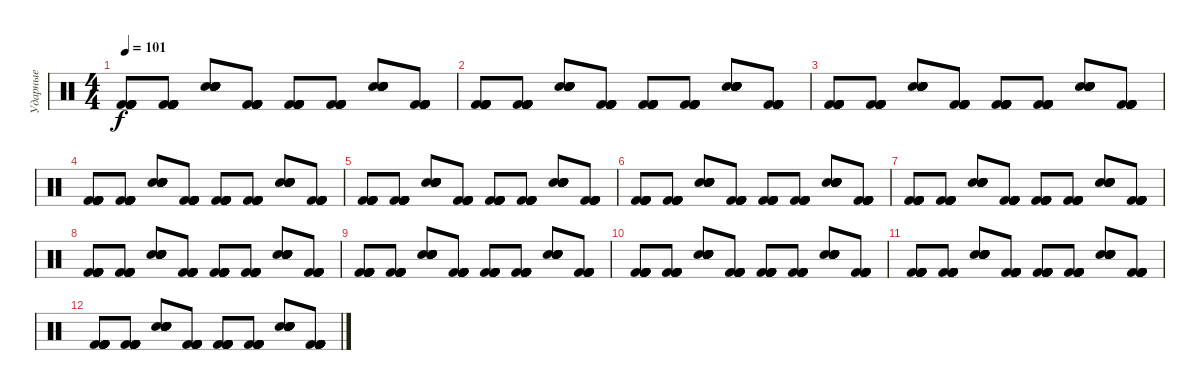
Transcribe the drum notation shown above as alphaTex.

\track ("Ударные" "Ударные") {instrument percussion}
\staff {score}
\articulation defaults
\ts (4 4)
\tempo 101
\clef neutral
\ks c
("Kick (hit) 2" "Kick (hit) 2" "Kick (hit) 2" "Kick (hit) 2" "Kick (hit) 2" "Kick (hit) 2").8{dy f} ("Kick (hit) 2" "Kick (hit) 2" "Kick (hit) 2" "Kick (hit) 2" "Kick (hit) 2" "Kick (hit) 2").8 ("Snare (hit) 2" "Snare (hit) 2" "Snare (hit) 2" "Snare (hit) 2" "Snare (hit) 2" "Snare (hit) 2").8 ("Kick (hit) 2" "Kick (hit) 2" "Kick (hit) 2" "Kick (hit) 2" "Kick (hit) 2" "Kick (hit) 2").8 ("Kick (hit) 2" "Kick (hit) 2" "Kick (hit) 2" "Kick (hit) 2" "Kick (hit) 2" "Kick (hit) 2").8 ("Kick (hit) 2" "Kick (hit) 2" "Kick (hit) 2" "Kick (hit) 2" "Kick (hit) 2" "Kick (hit) 2").8 ("Snare (hit) 2" "Snare (hit) 2" "Snare (hit) 2" "Snare (hit) 2" "Snare (hit) 2" "Snare (hit) 2").8 ("Kick (hit) 2" "Kick (hit) 2" "Kick (hit) 2" "Kick (hit) 2" "Kick (hit) 2" "Kick (hit) 2").8 |
("Kick (hit) 2" "Kick (hit) 2" "Kick (hit) 2" "Kick (hit) 2" "Kick (hit) 2" "Kick (hit) 2").8 ("Kick (hit) 2" "Kick (hit) 2" "Kick (hit) 2" "Kick (hit) 2" "Kick (hit) 2" "Kick (hit) 2").8 ("Snare (hit) 2" "Snare (hit) 2" "Snare (hit) 2" "Snare (hit) 2" "Snare (hit) 2" "Snare (hit) 2").8 ("Kick (hit) 2" "Kick (hit) 2" "Kick (hit) 2" "Kick (hit) 2" "Kick (hit) 2" "Kick (hit) 2").8 ("Kick (hit) 2" "Kick (hit) 2" "Kick (hit) 2" "Kick (hit) 2" "Kick (hit) 2" "Kick (hit) 2").8 ("Kick (hit) 2" "Kick (hit) 2" "Kick (hit) 2" "Kick (hit) 2" "Kick (hit) 2" "Kick (hit) 2").8 ("Snare (hit) 2" "Snare (hit) 2" "Snare (hit) 2" "Snare (hit) 2" "Snare (hit) 2" "Snare (hit) 2").8 ("Kick (hit) 2" "Kick (hit) 2" "Kick (hit) 2" "Kick (hit) 2" "Kick (hit) 2" "Kick (hit) 2").8 |
("Kick (hit) 2" "Kick (hit) 2" "Kick (hit) 2" "Kick (hit) 2" "Kick (hit) 2" "Kick (hit) 2").8 ("Kick (hit) 2" "Kick (hit) 2" "Kick (hit) 2" "Kick (hit) 2" "Kick (hit) 2" "Kick (hit) 2").8 ("Snare (hit) 2" "Snare (hit) 2" "Snare (hit) 2" "Snare (hit) 2" "Snare (hit) 2" "Snare (hit) 2").8 ("Kick (hit) 2" "Kick (hit) 2" "Kick (hit) 2" "Kick (hit) 2" "Kick (hit) 2" "Kick (hit) 2").8 ("Kick (hit) 2" "Kick (hit) 2" "Kick (hit) 2" "Kick (hit) 2" "Kick (hit) 2" "Kick (hit) 2").8 ("Kick (hit) 2" "Kick (hit) 2" "Kick (hit) 2" "Kick (hit) 2" "Kick (hit) 2" "Kick (hit) 2").8 ("Snare (hit) 2" "Snare (hit) 2" "Snare (hit) 2" "Snare (hit) 2" "Snare (hit) 2" "Snare (hit) 2").8 ("Kick (hit) 2" "Kick (hit) 2" "Kick (hit) 2" "Kick (hit) 2" "Kick (hit) 2" "Kick (hit) 2").8 |
("Kick (hit) 2" "Kick (hit) 2" "Kick (hit) 2" "Kick (hit) 2" "Kick (hit) 2" "Kick (hit) 2").8 ("Kick (hit) 2" "Kick (hit) 2" "Kick (hit) 2" "Kick (hit) 2" "Kick (hit) 2" "Kick (hit) 2").8 ("Snare (hit) 2" "Snare (hit) 2" "Snare (hit) 2" "Snare (hit) 2" "Snare (hit) 2" "Snare (hit) 2").8 ("Kick (hit) 2" "Kick (hit) 2" "Kick (hit) 2" "Kick (hit) 2" "Kick (hit) 2" "Kick (hit) 2").8 ("Kick (hit) 2" "Kick (hit) 2" "Kick (hit) 2" "Kick (hit) 2" "Kick (hit) 2" "Kick (hit) 2").8 ("Kick (hit) 2" "Kick (hit) 2" "Kick (hit) 2" "Kick (hit) 2" "Kick (hit) 2" "Kick (hit) 2").8 ("Snare (hit) 2" "Snare (hit) 2" "Snare (hit) 2" "Snare (hit) 2" "Snare (hit) 2" "Snare (hit) 2").8 ("Kick (hit) 2" "Kick (hit) 2" "Kick (hit) 2" "Kick (hit) 2" "Kick (hit) 2" "Kick (hit) 2").8 |
("Kick (hit) 2" "Kick (hit) 2" "Kick (hit) 2" "Kick (hit) 2" "Kick (hit) 2" "Kick (hit) 2").8 ("Kick (hit) 2" "Kick (hit) 2" "Kick (hit) 2" "Kick (hit) 2" "Kick (hit) 2" "Kick (hit) 2").8 ("Snare (hit) 2" "Snare (hit) 2" "Snare (hit) 2" "Snare (hit) 2" "Snare (hit) 2" "Snare (hit) 2").8 ("Kick (hit) 2" "Kick (hit) 2" "Kick (hit) 2" "Kick (hit) 2" "Kick (hit) 2" "Kick (hit) 2").8 ("Kick (hit) 2" "Kick (hit) 2" "Kick (hit) 2" "Kick (hit) 2" "Kick (hit) 2" "Kick (hit) 2").8 ("Kick (hit) 2" "Kick (hit) 2" "Kick (hit) 2" "Kick (hit) 2" "Kick (hit) 2" "Kick (hit) 2").8 ("Snare (hit) 2" "Snare (hit) 2" "Snare (hit) 2" "Snare (hit) 2" "Snare (hit) 2" "Snare (hit) 2").8 ("Kick (hit) 2" "Kick (hit) 2" "Kick (hit) 2" "Kick (hit) 2" "Kick (hit) 2" "Kick (hit) 2").8 |
("Kick (hit) 2" "Kick (hit) 2" "Kick (hit) 2" "Kick (hit) 2" "Kick (hit) 2" "Kick (hit) 2").8 ("Kick (hit) 2" "Kick (hit) 2" "Kick (hit) 2" "Kick (hit) 2" "Kick (hit) 2" "Kick (hit) 2").8 ("Snare (hit) 2" "Snare (hit) 2" "Snare (hit) 2" "Snare (hit) 2" "Snare (hit) 2" "Snare (hit) 2").8 ("Kick (hit) 2" "Kick (hit) 2" "Kick (hit) 2" "Kick (hit) 2" "Kick (hit) 2" "Kick (hit) 2").8 ("Kick (hit) 2" "Kick (hit) 2" "Kick (hit) 2" "Kick (hit) 2" "Kick (hit) 2" "Kick (hit) 2").8 ("Kick (hit) 2" "Kick (hit) 2" "Kick (hit) 2" "Kick (hit) 2" "Kick (hit) 2" "Kick (hit) 2").8 ("Snare (hit) 2" "Snare (hit) 2" "Snare (hit) 2" "Snare (hit) 2" "Snare (hit) 2" "Snare (hit) 2").8 ("Kick (hit) 2" "Kick (hit) 2" "Kick (hit) 2" "Kick (hit) 2" "Kick (hit) 2" "Kick (hit) 2").8 |
("Kick (hit) 2" "Kick (hit) 2" "Kick (hit) 2" "Kick (hit) 2" "Kick (hit) 2" "Kick (hit) 2").8 ("Kick (hit) 2" "Kick (hit) 2" "Kick (hit) 2" "Kick (hit) 2" "Kick (hit) 2" "Kick (hit) 2").8 ("Snare (hit) 2" "Snare (hit) 2" "Snare (hit) 2" "Snare (hit) 2" "Snare (hit) 2" "Snare (hit) 2").8 ("Kick (hit) 2" "Kick (hit) 2" "Kick (hit) 2" "Kick (hit) 2" "Kick (hit) 2" "Kick (hit) 2").8 ("Kick (hit) 2" "Kick (hit) 2" "Kick (hit) 2" "Kick (hit) 2" "Kick (hit) 2" "Kick (hit) 2").8 ("Kick (hit) 2" "Kick (hit) 2" "Kick (hit) 2" "Kick (hit) 2" "Kick (hit) 2" "Kick (hit) 2").8 ("Snare (hit) 2" "Snare (hit) 2" "Snare (hit) 2" "Snare (hit) 2" "Snare (hit) 2" "Snare (hit) 2").8 ("Kick (hit) 2" "Kick (hit) 2" "Kick (hit) 2" "Kick (hit) 2" "Kick (hit) 2" "Kick (hit) 2").8 |
("Kick (hit) 2" "Kick (hit) 2" "Kick (hit) 2" "Kick (hit) 2" "Kick (hit) 2" "Kick (hit) 2").8 ("Kick (hit) 2" "Kick (hit) 2" "Kick (hit) 2" "Kick (hit) 2" "Kick (hit) 2" "Kick (hit) 2").8 ("Snare (hit) 2" "Snare (hit) 2" "Snare (hit) 2" "Snare (hit) 2" "Snare (hit) 2" "Snare (hit) 2").8 ("Kick (hit) 2" "Kick (hit) 2" "Kick (hit) 2" "Kick (hit) 2" "Kick (hit) 2" "Kick (hit) 2").8 ("Kick (hit) 2" "Kick (hit) 2" "Kick (hit) 2" "Kick (hit) 2" "Kick (hit) 2" "Kick (hit) 2").8 ("Kick (hit) 2" "Kick (hit) 2" "Kick (hit) 2" "Kick (hit) 2" "Kick (hit) 2" "Kick (hit) 2").8 ("Snare (hit) 2" "Snare (hit) 2" "Snare (hit) 2" "Snare (hit) 2" "Snare (hit) 2" "Snare (hit) 2").8 ("Kick (hit) 2" "Kick (hit) 2" "Kick (hit) 2" "Kick (hit) 2" "Kick (hit) 2" "Kick (hit) 2").8 |
("Kick (hit) 2" "Kick (hit) 2" "Kick (hit) 2" "Kick (hit) 2" "Kick (hit) 2" "Kick (hit) 2").8 ("Kick (hit) 2" "Kick (hit) 2" "Kick (hit) 2" "Kick (hit) 2" "Kick (hit) 2" "Kick (hit) 2").8 ("Snare (hit) 2" "Snare (hit) 2" "Snare (hit) 2" "Snare (hit) 2" "Snare (hit) 2" "Snare (hit) 2").8 ("Kick (hit) 2" "Kick (hit) 2" "Kick (hit) 2" "Kick (hit) 2" "Kick (hit) 2" "Kick (hit) 2").8 ("Kick (hit) 2" "Kick (hit) 2" "Kick (hit) 2" "Kick (hit) 2" "Kick (hit) 2" "Kick (hit) 2").8 ("Kick (hit) 2" "Kick (hit) 2" "Kick (hit) 2" "Kick (hit) 2" "Kick (hit) 2" "Kick (hit) 2").8 ("Snare (hit) 2" "Snare (hit) 2" "Snare (hit) 2" "Snare (hit) 2" "Snare (hit) 2" "Snare (hit) 2").8 ("Kick (hit) 2" "Kick (hit) 2" "Kick (hit) 2" "Kick (hit) 2" "Kick (hit) 2" "Kick (hit) 2").8 |
("Kick (hit) 2" "Kick (hit) 2" "Kick (hit) 2" "Kick (hit) 2" "Kick (hit) 2" "Kick (hit) 2").8 ("Kick (hit) 2" "Kick (hit) 2" "Kick (hit) 2" "Kick (hit) 2" "Kick (hit) 2" "Kick (hit) 2").8 ("Snare (hit) 2" "Snare (hit) 2" "Snare (hit) 2" "Snare (hit) 2" "Snare (hit) 2" "Snare (hit) 2").8 ("Kick (hit) 2" "Kick (hit) 2" "Kick (hit) 2" "Kick (hit) 2" "Kick (hit) 2" "Kick (hit) 2").8 ("Kick (hit) 2" "Kick (hit) 2" "Kick (hit) 2" "Kick (hit) 2" "Kick (hit) 2" "Kick (hit) 2").8 ("Kick (hit) 2" "Kick (hit) 2" "Kick (hit) 2" "Kick (hit) 2" "Kick (hit) 2" "Kick (hit) 2").8 ("Snare (hit) 2" "Snare (hit) 2" "Snare (hit) 2" "Snare (hit) 2" "Snare (hit) 2" "Snare (hit) 2").8 ("Kick (hit) 2" "Kick (hit) 2" "Kick (hit) 2" "Kick (hit) 2" "Kick (hit) 2" "Kick (hit) 2").8 |
("Kick (hit) 2" "Kick (hit) 2" "Kick (hit) 2" "Kick (hit) 2" "Kick (hit) 2" "Kick (hit) 2").8 ("Kick (hit) 2" "Kick (hit) 2" "Kick (hit) 2" "Kick (hit) 2" "Kick (hit) 2" "Kick (hit) 2").8 ("Snare (hit) 2" "Snare (hit) 2" "Snare (hit) 2" "Snare (hit) 2" "Snare (hit) 2" "Snare (hit) 2").8 ("Kick (hit) 2" "Kick (hit) 2" "Kick (hit) 2" "Kick (hit) 2" "Kick (hit) 2" "Kick (hit) 2").8 ("Kick (hit) 2" "Kick (hit) 2" "Kick (hit) 2" "Kick (hit) 2" "Kick (hit) 2" "Kick (hit) 2").8 ("Kick (hit) 2" "Kick (hit) 2" "Kick (hit) 2" "Kick (hit) 2" "Kick (hit) 2" "Kick (hit) 2").8 ("Snare (hit) 2" "Snare (hit) 2" "Snare (hit) 2" "Snare (hit) 2" "Snare (hit) 2" "Snare (hit) 2").8 ("Kick (hit) 2" "Kick (hit) 2" "Kick (hit) 2" "Kick (hit) 2" "Kick (hit) 2" "Kick (hit) 2").8 |
("Kick (hit) 2" "Kick (hit) 2" "Kick (hit) 2" "Kick (hit) 2" "Kick (hit) 2" "Kick (hit) 2").8 ("Kick (hit) 2" "Kick (hit) 2" "Kick (hit) 2" "Kick (hit) 2" "Kick (hit) 2" "Kick (hit) 2").8 ("Snare (hit) 2" "Snare (hit) 2" "Snare (hit) 2" "Snare (hit) 2" "Snare (hit) 2" "Snare (hit) 2").8 ("Kick (hit) 2" "Kick (hit) 2" "Kick (hit) 2" "Kick (hit) 2" "Kick (hit) 2" "Kick (hit) 2").8 ("Kick (hit) 2" "Kick (hit) 2" "Kick (hit) 2" "Kick (hit) 2" "Kick (hit) 2" "Kick (hit) 2").8 ("Kick (hit) 2" "Kick (hit) 2" "Kick (hit) 2" "Kick (hit) 2" "Kick (hit) 2" "Kick (hit) 2").8 ("Snare (hit) 2" "Snare (hit) 2" "Snare (hit) 2" "Snare (hit) 2" "Snare (hit) 2" "Snare (hit) 2").8 ("Kick (hit) 2" "Kick (hit) 2" "Kick (hit) 2" "Kick (hit) 2" "Kick (hit) 2" "Kick (hit) 2").8
